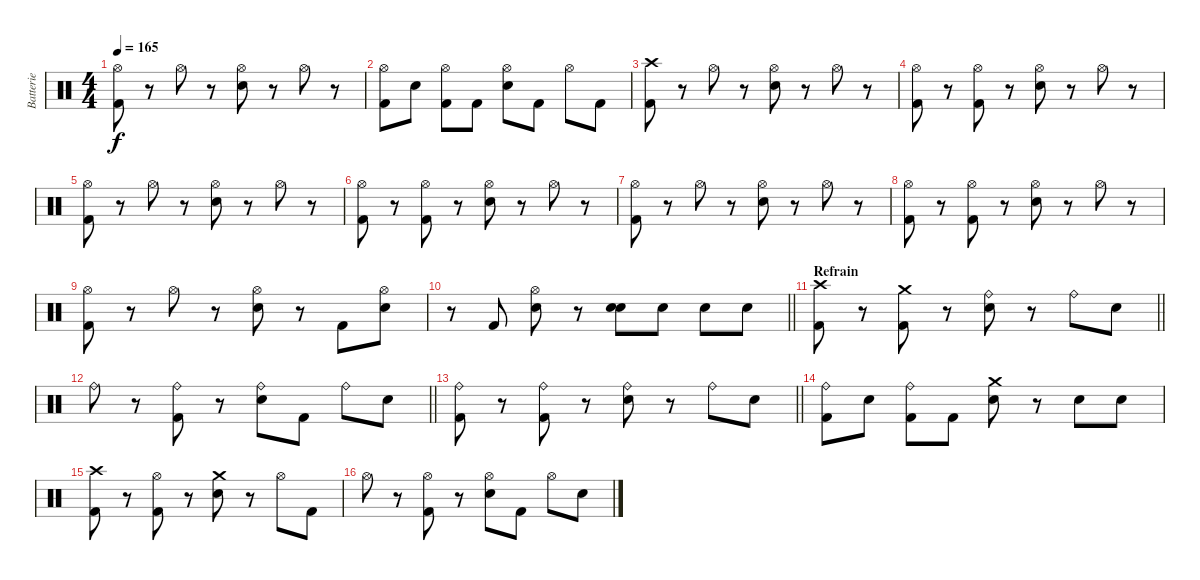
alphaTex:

\track ("Batterie" "Batterie") {instrument percussion}
\staff {score}
\articulation defaults
\ts (4 4)
\tempo 165
\clef neutral
\ks c
("Hi-Hat (open)" "Kick (hit) 2").8{dy f} r.8 "Hi-Hat (open)".8 r.8 ("Hi-Hat (open)" "Electric Snare (hit)").8 r.8 "Hi-Hat (open)".8 r.8 |
("Hi-Hat (open)" "Kick (hit) 2").8 "Electric Snare (hit)".8 ("Hi-Hat (open)" "Kick (hit) 2").8 "Kick (hit) 2".8 ("Hi-Hat (open)" "Electric Snare (hit)").8 "Kick (hit) 2".8 "Hi-Hat (open)".8 "Kick (hit) 2".8 |
("Crash high (hit)" "Kick (hit) 2").8 r.8 "Hi-Hat (open)".8 r.8 ("Hi-Hat (open)" "Electric Snare (hit)").8 r.8 "Hi-Hat (open)".8 r.8 |
("Hi-Hat (open)" "Kick (hit) 2").8 r.8 ("Hi-Hat (open)" "Kick (hit) 2").8 r.8 ("Hi-Hat (open)" "Electric Snare (hit)").8 r.8 "Hi-Hat (open)".8 r.8 |
("Hi-Hat (open)" "Kick (hit) 2").8 r.8 "Hi-Hat (open)".8 r.8 ("Hi-Hat (open)" "Electric Snare (hit)").8 r.8 "Hi-Hat (open)".8 r.8 |
("Hi-Hat (open)" "Kick (hit) 2").8 r.8 ("Hi-Hat (open)" "Kick (hit) 2").8 r.8 ("Hi-Hat (open)" "Electric Snare (hit)").8 r.8 "Hi-Hat (open)".8 r.8 |
("Hi-Hat (open)" "Kick (hit) 2").8 r.8 "Hi-Hat (open)".8 r.8 ("Hi-Hat (open)" "Electric Snare (hit)").8 r.8 "Hi-Hat (open)".8 r.8 |
("Hi-Hat (open)" "Kick (hit) 2").8 r.8 ("Hi-Hat (open)" "Kick (hit) 2").8 r.8 ("Hi-Hat (open)" "Electric Snare (hit)").8 r.8 "Hi-Hat (open)".8 r.8 |
("Hi-Hat (open)" "Kick (hit) 2").8 r.8 "Hi-Hat (open)".8 r.8 ("Hi-Hat (open)" "Electric Snare (hit)").8 r.8 "Kick (hit) 2".8 ("Hi-Hat (open)" "Electric Snare (hit)").8 |
\barLineRight lightlight
r.8 "Kick (hit) 2".8 ("Hi-Hat (open)" "Electric Snare (hit)").8 r.8 ("Electric Snare (hit)" "Electric Snare (hit)").8{bu 120} "Electric Snare (hit)".8 "Electric Snare (hit)".8 "Electric Snare (hit)".8 |
\section ("" "Refrain")
\barLineRight lightlight
("Crash high (hit)" "Kick (hit) 2").8 r.8 ("Crash medium (hit)" "Kick (hit) 2").8 r.8 ("Ride (bell)" "Electric Snare (hit)").8 r.8 "Ride (bell)".8 "Electric Snare (hit)".8 |
\barLineRight lightlight "Ride (bell)".8
r.8 ("Ride (bell)" "Kick (hit) 2").8 r.8 ("Ride (bell)" "Electric Snare (hit)").8 "Kick (hit) 2".8 "Ride (bell)".8 "Electric Snare (hit)".8 |
\barLineRight lightlight
("Ride (bell)" "Kick (hit) 2").8 r.8 ("Ride (bell)" "Kick (hit) 2").8 r.8 ("Ride (bell)" "Electric Snare (hit)").8 r.8 "Ride (bell)".8 "Electric Snare (hit)".8 |
("Ride (bell)" "Kick (hit) 2").8 "Electric Snare (hit)".8 ("Ride (bell)" "Kick (hit) 2").8 "Kick (hit) 2".8 ("Crash medium (hit)" "Electric Snare (hit)").8 r.8 "Electric Snare (hit)".8 "Electric Snare (hit)".8 |
("Crash high (hit)" "Kick (hit) 2").8 r.8 ("Hi-Hat (open)" "Kick (hit) 2").8 r.8 ("Crash medium (hit)" "Electric Snare (hit)").8 r.8 "Hi-Hat (open)".8 "Kick (hit) 2".8 |
"Hi-Hat (open)".8 r.8 ("Hi-Hat (open)" "Kick (hit) 2").8 r.8 ("Hi-Hat (open)" "Electric Snare (hit)").8 "Kick (hit) 2".8 "Hi-Hat (open)".8 "Electric Snare (hit)".8
